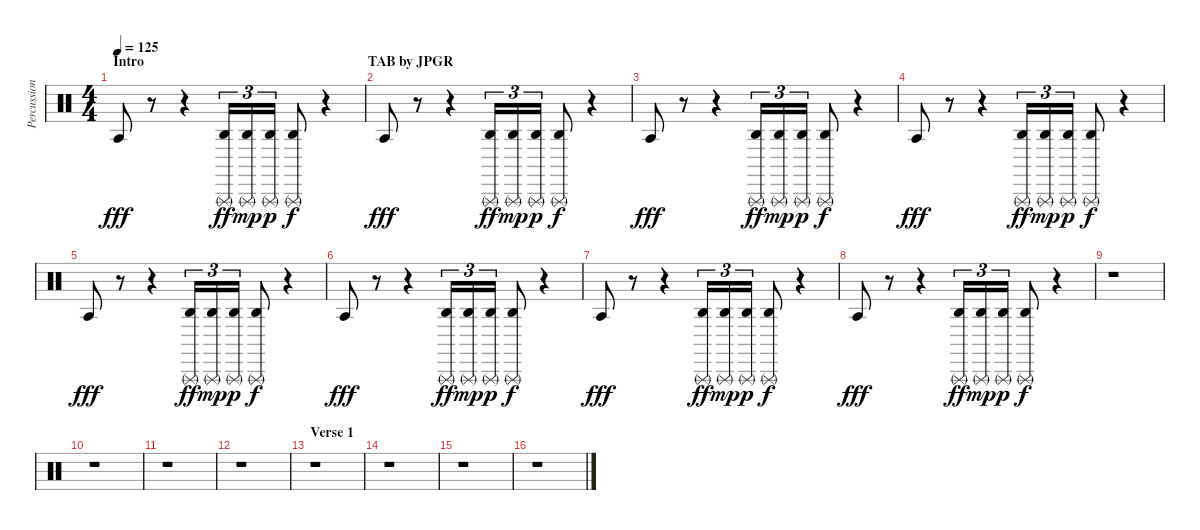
\track ("Percussion" "Percussion") {instrument percussion}
\staff {score}
\articulation defaults
\ts (4 4)
\section ("" "Intro                                                                TAB by JPGR")
\tempo 125
\clef neutral
\ks c "Agogo tow (hit)".8{dy fff volume 16 balance 2}
r.8 r.4 ("Triangle (rnute)" "Agogo high (hit)").16{tu (3 2) dy ff volume 15 balance 12} ("Triangle (rnute)" "Agogo high (hit)").16{tu (3 2) dy mp} ("Triangle (rnute)" "Agogo high (hit)").16{tu (3 2) dy p} ("Triangle (rnute)" "Agogo high (hit)").8{dy f} r.4 |
"Agogo tow (hit)".8{dy fff volume 16 balance 2} r.8 r.4 ("Triangle (rnute)" "Agogo high (hit)").16{tu (3 2) dy ff volume 15 balance 12} ("Triangle (rnute)" "Agogo high (hit)").16{tu (3 2) dy mp} ("Triangle (rnute)" "Agogo high (hit)").16{tu (3 2) dy p} ("Triangle (rnute)" "Agogo high (hit)").8{dy f} r.4 |
"Agogo tow (hit)".8{dy fff volume 16 balance 2} r.8 r.4 ("Triangle (rnute)" "Agogo high (hit)").16{tu (3 2) dy ff volume 15 balance 12} ("Triangle (rnute)" "Agogo high (hit)").16{tu (3 2) dy mp} ("Triangle (rnute)" "Agogo high (hit)").16{tu (3 2) dy p} ("Triangle (rnute)" "Agogo high (hit)").8{dy f} r.4 |
"Agogo tow (hit)".8{dy fff volume 16 balance 2} r.8 r.4 ("Triangle (rnute)" "Agogo high (hit)").16{tu (3 2) dy ff volume 15 balance 12} ("Triangle (rnute)" "Agogo high (hit)").16{tu (3 2) dy mp} ("Triangle (rnute)" "Agogo high (hit)").16{tu (3 2) dy p} ("Triangle (rnute)" "Agogo high (hit)").8{dy f} r.4 |
"Agogo tow (hit)".8{dy fff volume 16 balance 2} r.8 r.4 ("Triangle (rnute)" "Agogo high (hit)").16{tu (3 2) dy ff volume 15 balance 12} ("Triangle (rnute)" "Agogo high (hit)").16{tu (3 2) dy mp} ("Triangle (rnute)" "Agogo high (hit)").16{tu (3 2) dy p} ("Triangle (rnute)" "Agogo high (hit)").8{dy f} r.4 |
"Agogo tow (hit)".8{dy fff volume 16 balance 2} r.8 r.4 ("Triangle (rnute)" "Agogo high (hit)").16{tu (3 2) dy ff volume 15 balance 12} ("Triangle (rnute)" "Agogo high (hit)").16{tu (3 2) dy mp} ("Triangle (rnute)" "Agogo high (hit)").16{tu (3 2) dy p} ("Triangle (rnute)" "Agogo high (hit)").8{dy f} r.4 |
"Agogo tow (hit)".8{dy fff volume 16 balance 2} r.8 r.4 ("Triangle (rnute)" "Agogo high (hit)").16{tu (3 2) dy ff volume 15 balance 12} ("Triangle (rnute)" "Agogo high (hit)").16{tu (3 2) dy mp} ("Triangle (rnute)" "Agogo high (hit)").16{tu (3 2) dy p} ("Triangle (rnute)" "Agogo high (hit)").8{dy f} r.4 |
"Agogo tow (hit)".8{dy fff volume 16 balance 2} r.8 r.4 ("Triangle (rnute)" "Agogo high (hit)").16{tu (3 2) dy ff volume 15 balance 12} ("Triangle (rnute)" "Agogo high (hit)").16{tu (3 2) dy mp} ("Triangle (rnute)" "Agogo high (hit)").16{tu (3 2) dy p} ("Triangle (rnute)" "Agogo high (hit)").8{dy f} r.4 |
r.1 |
r.1 |
r.1 |
r.1 |
\section ("" "Verse 1")
r.1 |
r.1 |
r.1 |
r.1
